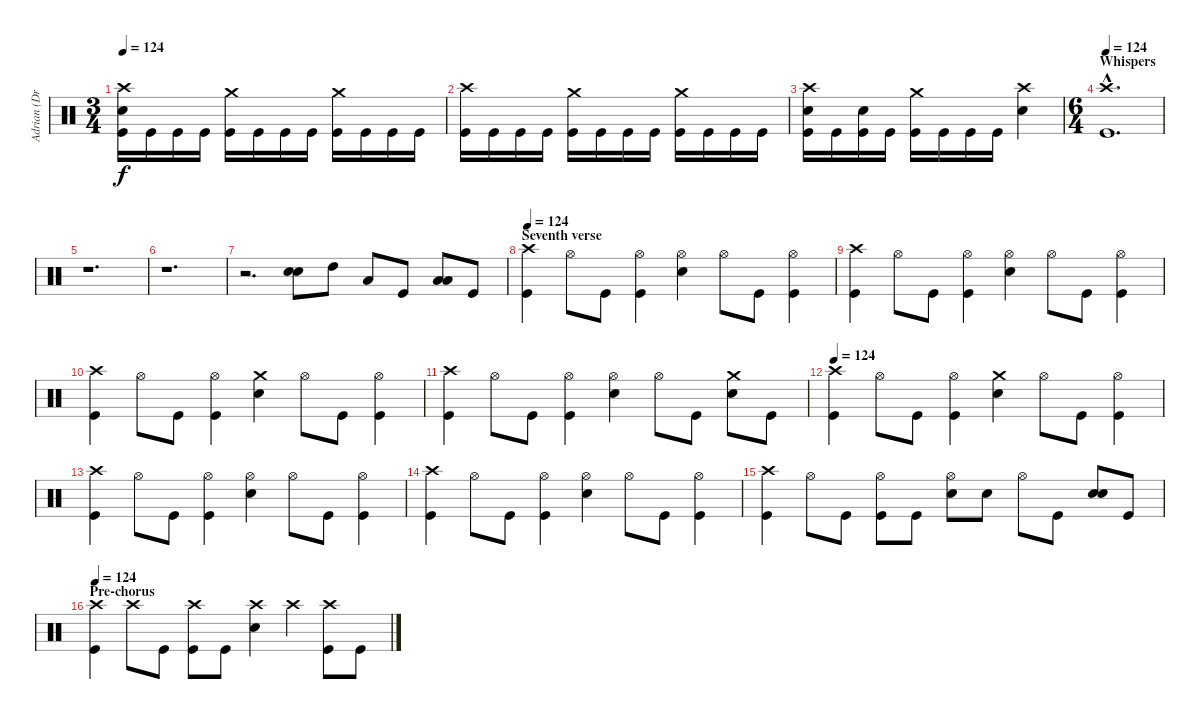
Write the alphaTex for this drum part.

\track ("Adrian (Drums)" "Adrian (Dr") {instrument percussion}
\staff {score}
\articulation defaults
\ts (3 4)
\tempo 124
\clef neutral
\ks c
("Crash high (hit)" "Electric Snare (hit)" "Kick (hit)").16{dy f} "Kick (hit)".16 "Kick (hit)".16 "Kick (hit)".16 ("Crash medium (hit)" "Kick (hit)").16 "Kick (hit)".16 "Kick (hit)".16 "Kick (hit)".16 ("Crash medium (hit)" "Kick (hit)").16 "Kick (hit)".16 "Kick (hit)".16 "Kick (hit)".16 |
("Crash high (hit)" "Kick (hit)").16 "Kick (hit)".16 "Kick (hit)".16 "Kick (hit)".16 ("Crash medium (hit)" "Kick (hit)").16 "Kick (hit)".16 "Kick (hit)".16 "Kick (hit)".16 ("Crash medium (hit)" "Kick (hit)").16 "Kick (hit)".16 "Kick (hit)".16 "Kick (hit)".16 |
("Crash high (hit)" "Electric Snare (hit)" "Kick (hit)").16 "Kick (hit)".16 ("Electric Snare (hit)" "Kick (hit)").16 "Kick (hit)".16 ("Crash medium (hit)" "Kick (hit)").16 "Kick (hit)".16 "Kick (hit)".16 "Kick (hit)".16 ("Crash high (hit)" "Electric Snare (hit)").4 |
\ts (6 4)
\section ("" "Whispers")
\tempo 124
("Crash high (hit)"{hac} "Kick (hit)"{hac}).1{d} |
r.1{d} |
r.1{d} |
r.2{d} ("Electric Snare (hit)" "Electric Snare (hit)").8{bu 240} "High Tom (hit)".8 "Low Tom (hit)".8 "Kick (hit)".8 ("Low Tom (hit)" "Low Tom (hit)").8{bu 240} "Kick (hit)".8 |
\section ("" "Seventh verse")
\tempo 124
("Crash high (hit)" "Kick (hit)").4 "Hi-Hat (open)".8 "Kick (hit)".8 ("Hi-Hat (open)" "Kick (hit)").4 ("Hi-Hat (open)" "Electric Snare (hit)").4 "Hi-Hat (open)".8 "Kick (hit)".8 ("Hi-Hat (open)" "Kick (hit)").4 |
("Crash high (hit)" "Kick (hit)").4 "Hi-Hat (open)".8 "Kick (hit)".8 ("Hi-Hat (open)" "Kick (hit)").4 ("Hi-Hat (open)" "Electric Snare (hit)").4 "Hi-Hat (open)".8 "Kick (hit)".8 ("Hi-Hat (open)" "Kick (hit)").4 |
("Crash high (hit)" "Kick (hit)").4 "Hi-Hat (open)".8 "Kick (hit)".8 ("Hi-Hat (open)" "Kick (hit)").4 ("Crash medium (hit)" "Electric Snare (hit)").4 "Hi-Hat (open)".8 "Kick (hit)".8 ("Hi-Hat (open)" "Kick (hit)").4 |
("Crash high (hit)" "Kick (hit)").4 "Hi-Hat (open)".8 "Kick (hit)".8 ("Hi-Hat (open)" "Kick (hit)").4 ("Hi-Hat (open)" "Electric Snare (hit)").4 "Hi-Hat (open)".8 "Kick (hit)".8 ("Crash medium (hit)" "Electric Snare (hit)").8 "Kick (hit)".8 |
\tempo 124
("Crash high (hit)" "Kick (hit)").4 "Hi-Hat (open)".8 "Kick (hit)".8 ("Hi-Hat (open)" "Kick (hit)").4 ("Crash medium (hit)" "Electric Snare (hit)").4 "Hi-Hat (open)".8 "Kick (hit)".8 ("Hi-Hat (open)" "Kick (hit)").4 |
("Crash high (hit)" "Kick (hit)").4 "Hi-Hat (open)".8 "Kick (hit)".8 ("Hi-Hat (open)" "Kick (hit)").4 ("Hi-Hat (open)" "Electric Snare (hit)").4 "Hi-Hat (open)".8 "Kick (hit)".8 ("Hi-Hat (open)" "Kick (hit)").4 |
("Crash high (hit)" "Kick (hit)").4 "Hi-Hat (open)".8 "Kick (hit)".8 ("Hi-Hat (open)" "Kick (hit)").4 ("Hi-Hat (open)" "Electric Snare (hit)").4 "Hi-Hat (open)".8 "Kick (hit)".8 ("Hi-Hat (open)" "Kick (hit)").4 |
("Crash high (hit)" "Kick (hit)").4 "Hi-Hat (open)".8 "Kick (hit)".8 ("Hi-Hat (open)" "Kick (hit)").8 "Kick (hit)".8 ("Hi-Hat (open)" "Electric Snare (hit)").8 "Electric Snare (hit)".8 "Hi-Hat (open)".8 "Kick (hit)".8 ("Electric Snare (hit)" "Electric Snare (hit)").8{bu 120} "Kick (hit)".8 |
\section ("" "Pre-chorus")
\tempo 124
("Crash high (hit)" "Kick (hit)").4 "Crash high (hit)".8 "Kick (hit)".8 ("Crash high (hit)" "Kick (hit)").8 "Kick (hit)".8 ("Crash high (hit)" "Electric Snare (hit)").4 "Crash high (hit)".4 ("Crash high (hit)" "Kick (hit)").8 "Kick (hit)".8
